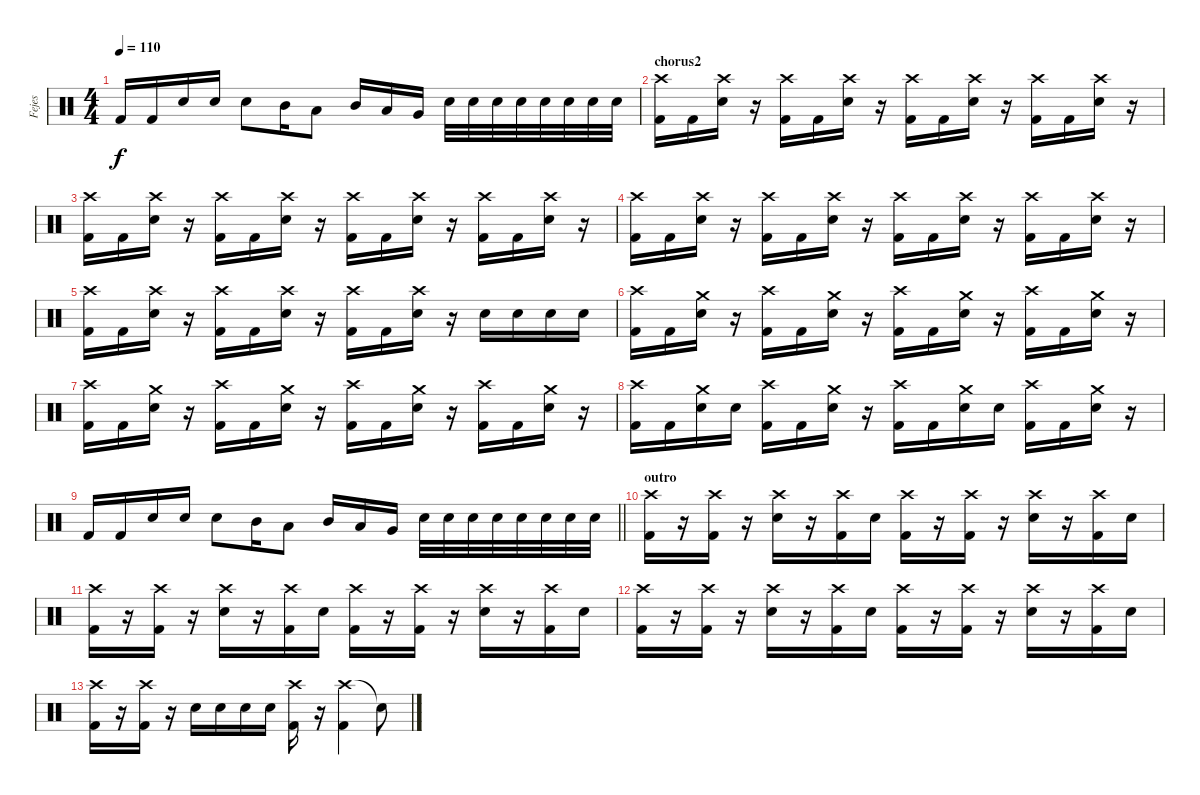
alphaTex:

\track ("Fejes" "Fejes") {instrument percussion}
\staff {score}
\articulation defaults
\ts (4 4)
\tempo 110
\clef neutral
\ks c "Kick (hit) 2".16{dy f} "Kick (hit) 2".16 "Snare (hit) 2".16 "Snare (hit) 2".16 "Snare (hit) 2".8 "Mid Tom (hit)".16 "Low Tom (hit)".8 "Mid Tom (hit)".16 "Low Tom (hit)".16 "Very Low Tom (hit)".16 "Snare (hit) 2".32 "Snare (hit) 2".32 "Snare (hit) 2".32 "Snare (hit) 2".32 "Snare (hit) 2".32 "Snare (hit) 2".32 "Snare (hit) 2".32 "Snare (hit) 2".32
|
\section ("" "chorus2")
("Crash high (hit)" "Kick (hit) 2").16 "Kick (hit) 2".16 ("Crash high (hit)" "Snare (hit) 2").16 r.16 ("Crash high (hit)" "Kick (hit) 2").16 "Kick (hit) 2".16 ("Crash high (hit)" "Snare (hit) 2").16 r.16 ("Crash high (hit)" "Kick (hit) 2").16 "Kick (hit) 2".16 ("Crash high (hit)" "Snare (hit) 2").16 r.16 ("Crash high (hit)" "Kick (hit) 2").16 "Kick (hit) 2".16 ("Crash high (hit)" "Snare (hit) 2").16 r.16 |
("Crash high (hit)" "Kick (hit) 2").16 "Kick (hit) 2".16 ("Crash high (hit)" "Snare (hit) 2").16 r.16 ("Crash high (hit)" "Kick (hit) 2").16 "Kick (hit) 2".16 ("Crash high (hit)" "Snare (hit) 2").16 r.16 ("Crash high (hit)" "Kick (hit) 2").16 "Kick (hit) 2".16 ("Crash high (hit)" "Snare (hit) 2").16 r.16 ("Crash high (hit)" "Kick (hit) 2").16 "Kick (hit) 2".16 ("Crash high (hit)" "Snare (hit) 2").16 r.16 |
("Crash high (hit)" "Kick (hit) 2").16 "Kick (hit) 2".16 ("Crash high (hit)" "Snare (hit) 2").16 r.16 ("Crash high (hit)" "Kick (hit) 2").16 "Kick (hit) 2".16 ("Crash high (hit)" "Snare (hit) 2").16 r.16 ("Crash high (hit)" "Kick (hit) 2").16 "Kick (hit) 2".16 ("Crash high (hit)" "Snare (hit) 2").16 r.16 ("Crash high (hit)" "Kick (hit) 2").16 "Kick (hit) 2".16 ("Crash high (hit)" "Snare (hit) 2").16 r.16 |
("Crash high (hit)" "Kick (hit) 2").16 "Kick (hit) 2".16 ("Crash high (hit)" "Snare (hit) 2").16 r.16 ("Crash high (hit)" "Kick (hit) 2").16 "Kick (hit) 2".16 ("Crash high (hit)" "Snare (hit) 2").16 r.16 ("Crash high (hit)" "Kick (hit) 2").16 "Kick (hit) 2".16 ("Crash high (hit)" "Snare (hit) 2").16 r.16 "Snare (hit) 2".16 "Snare (hit) 2".16 "Snare (hit) 2".16 "Snare (hit) 2".16 |
("Crash high (hit)" "Kick (hit) 2").16 "Kick (hit) 2".16 ("Crash medium (hit)" "Snare (hit) 2").16 r.16 ("Crash high (hit)" "Kick (hit) 2").16 "Kick (hit) 2".16 ("Crash medium (hit)" "Snare (hit) 2").16 r.16 ("Crash high (hit)" "Kick (hit) 2").16 "Kick (hit) 2".16 ("Crash medium (hit)" "Snare (hit) 2").16 r.16 ("Crash high (hit)" "Kick (hit) 2").16 "Kick (hit) 2".16 ("Crash medium (hit)" "Snare (hit) 2").16 r.16 |
("Crash high (hit)" "Kick (hit) 2").16 "Kick (hit) 2".16 ("Crash medium (hit)" "Snare (hit) 2").16 r.16 ("Crash high (hit)" "Kick (hit) 2").16 "Kick (hit) 2".16 ("Crash medium (hit)" "Snare (hit) 2").16 r.16 ("Crash high (hit)" "Kick (hit) 2").16 "Kick (hit) 2".16 ("Crash medium (hit)" "Snare (hit) 2").16 r.16 ("Crash high (hit)" "Kick (hit) 2").16 "Kick (hit) 2".16 ("Crash medium (hit)" "Snare (hit) 2").16 r.16 |
("Crash high (hit)" "Kick (hit) 2").16 "Kick (hit) 2".16 ("Crash medium (hit)" "Snare (hit) 2").16 "Snare (hit) 2".16 ("Crash high (hit)" "Kick (hit) 2").16 "Kick (hit) 2".16 ("Crash medium (hit)" "Snare (hit) 2").16 r.16 ("Crash high (hit)" "Kick (hit) 2").16 "Kick (hit) 2".16 ("Crash medium (hit)" "Snare (hit) 2").16 "Snare (hit) 2".16 ("Crash high (hit)" "Kick (hit) 2").16 "Kick (hit) 2".16 ("Crash medium (hit)" "Snare (hit) 2").16 r.16 |
\barLineRight lightlight "Kick (hit) 2".16 "Kick (hit) 2".16 "Snare (hit) 2".16 "Snare (hit) 2".16 "Snare (hit) 2".8 "Mid Tom (hit)".16 "Low Tom (hit)".8 "Mid Tom (hit)".16 "Low Tom (hit)".16 "Very Low Tom (hit)".16 "Snare (hit) 2".32 "Snare (hit) 2".32 "Snare (hit) 2".32 "Snare (hit) 2".32 "Snare (hit) 2".32 "Snare (hit) 2".32 "Snare (hit) 2".32 "Snare (hit) 2".32
|
\section ("" "outro")
("Crash high (hit)" "Kick (hit) 2").16 r.16 ("Crash high (hit)" "Kick (hit) 2").16 r.16 ("Crash high (hit)" "Snare (hit) 2").16 r.16 ("Crash high (hit)" "Kick (hit) 2").16 "Snare (hit) 2".16 ("Crash high (hit)" "Kick (hit) 2").16 r.16 ("Crash high (hit)" "Kick (hit) 2").16 r.16 ("Crash high (hit)" "Snare (hit) 2").16 r.16 ("Crash high (hit)" "Kick (hit) 2").16 "Snare (hit) 2".16 |
("Crash high (hit)" "Kick (hit) 2").16 r.16 ("Crash high (hit)" "Kick (hit) 2").16 r.16 ("Crash high (hit)" "Snare (hit) 2").16 r.16 ("Crash high (hit)" "Kick (hit) 2").16 "Snare (hit) 2".16 ("Crash high (hit)" "Kick (hit) 2").16 r.16 ("Crash high (hit)" "Kick (hit) 2").16 r.16 ("Crash high (hit)" "Snare (hit) 2").16 r.16 ("Crash high (hit)" "Kick (hit) 2").16 "Snare (hit) 2".16 |
("Crash high (hit)" "Kick (hit) 2").16 r.16 ("Crash high (hit)" "Kick (hit) 2").16 r.16 ("Crash high (hit)" "Snare (hit) 2").16 r.16 ("Crash high (hit)" "Kick (hit) 2").16 "Snare (hit) 2".16 ("Crash high (hit)" "Kick (hit) 2").16 r.16 ("Crash high (hit)" "Kick (hit) 2").16 r.16 ("Crash high (hit)" "Snare (hit) 2").16 r.16 ("Crash high (hit)" "Kick (hit) 2").16 "Snare (hit) 2".16 |
("Crash high (hit)" "Kick (hit) 2").16 r.16 ("Crash high (hit)" "Kick (hit) 2").16 r.16 "Snare (hit) 2".16 "Snare (hit) 2".16 "Snare (hit) 2".16 "Snare (hit) 2".16 ("Crash high (hit)" "Kick (hit) 2").16 r.16 ("Crash high (hit)" "Kick (hit) 2").4 "Snare (hit)"{t}.8
